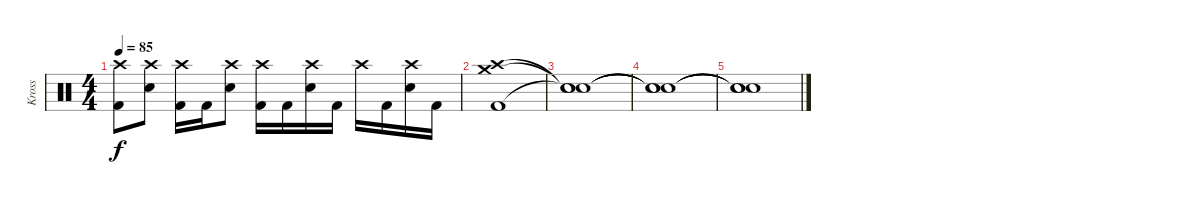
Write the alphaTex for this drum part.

\track ("Kross" "Kross") {instrument percussion}
\staff
\articulation defaults
\ts (4 4)
\tempo 85
\clef neutral
\ks c
("Crash high (hit)" "Kick (hit) 2").8{dy f} ("Crash high (hit)" "Electric Snare (hit)").8 ("Crash high (hit)" "Kick (hit) 2").16 "Kick (hit) 2".16 ("Crash high (hit)" "Electric Snare (hit)").8 ("Crash high (hit)" "Kick (hit) 2").16 "Kick (hit) 2".16 ("Crash high (hit)" "Electric Snare (hit)").16 "Kick (hit) 2".16 "Crash high (hit)".16 "Kick (hit) 2".16 ("Crash high (hit)" "Electric Snare (hit)").16 "Kick (hit) 2".16 |
("Crash medium (hit)" "Crash high (hit)" "Kick (hit) 2").1 |
("Snare (hit)"{t} "Snare (hit)"{t} "Snare (hit)"{t}).1 |
("Snare (hit)"{t} "Snare (hit)"{t} "Snare (hit)"{t}).1 |
("Snare (hit)"{t} "Snare (hit)"{t} "Snare (hit)"{t}).1
